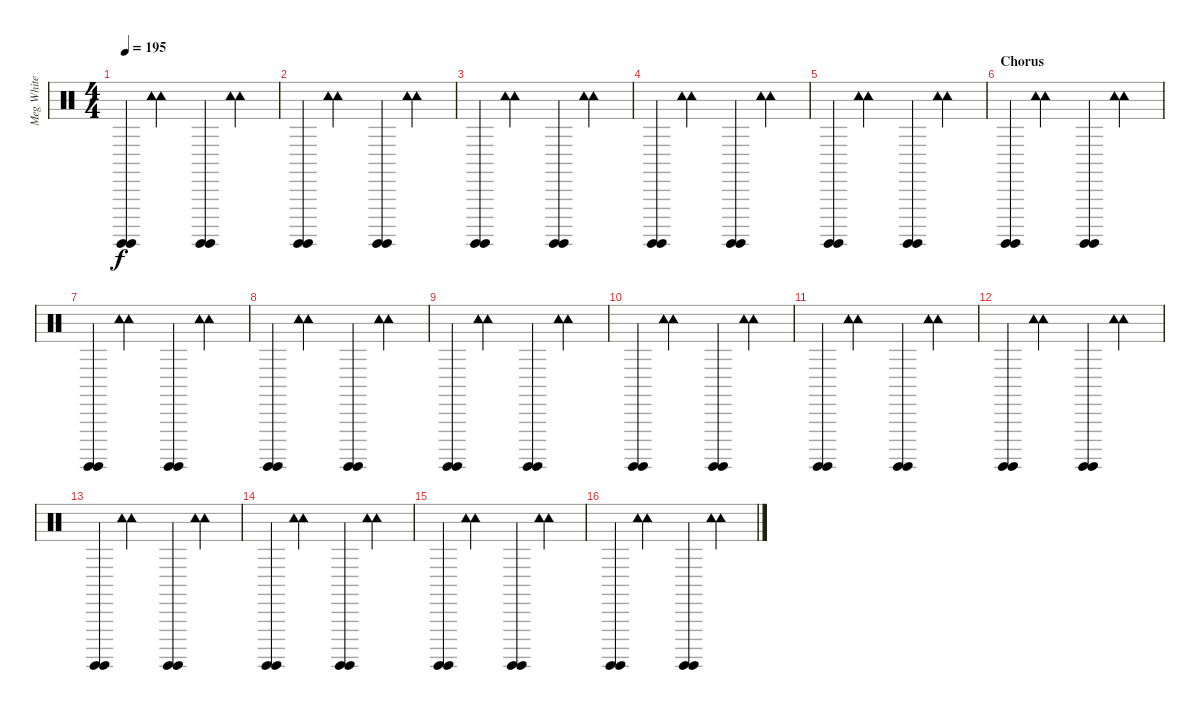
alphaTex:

\track ("Meg White" "Meg White") {instrument percussion}
\staff {score}
\articulation defaults
\ts (4 4)
\tempo 195
\clef neutral
\ks c
("Surdo (hit)" "Surdo (hit)").4{dy f} ("Tambourine (hit)" "Tambourine (hit)").4 ("Surdo (hit)" "Surdo (hit)").4 ("Tambourine (hit)" "Tambourine (hit)").4 |
("Surdo (hit)" "Surdo (hit)").4 ("Tambourine (hit)" "Tambourine (hit)").4 ("Surdo (hit)" "Surdo (hit)").4 ("Tambourine (hit)" "Tambourine (hit)").4 |
("Surdo (hit)" "Surdo (hit)").4 ("Tambourine (hit)" "Tambourine (hit)").4 ("Surdo (hit)" "Surdo (hit)").4 ("Tambourine (hit)" "Tambourine (hit)").4 |
("Surdo (hit)" "Surdo (hit)").4 ("Tambourine (hit)" "Tambourine (hit)").4 ("Surdo (hit)" "Surdo (hit)").4 ("Tambourine (hit)" "Tambourine (hit)").4 |
("Surdo (hit)" "Surdo (hit)").4 ("Tambourine (hit)" "Tambourine (hit)").4 ("Surdo (hit)" "Surdo (hit)").4 ("Tambourine (hit)" "Tambourine (hit)").4 |
\section ("" "Chorus")
("Surdo (hit)" "Surdo (hit)").4 ("Tambourine (hit)" "Tambourine (hit)").4 ("Surdo (hit)" "Surdo (hit)").4 ("Tambourine (hit)" "Tambourine (hit)").4 |
("Surdo (hit)" "Surdo (hit)").4 ("Tambourine (hit)" "Tambourine (hit)").4 ("Surdo (hit)" "Surdo (hit)").4 ("Tambourine (hit)" "Tambourine (hit)").4 |
("Surdo (hit)" "Surdo (hit)").4 ("Tambourine (hit)" "Tambourine (hit)").4 ("Surdo (hit)" "Surdo (hit)").4 ("Tambourine (hit)" "Tambourine (hit)").4 |
("Surdo (hit)" "Surdo (hit)").4 ("Tambourine (hit)" "Tambourine (hit)").4 ("Surdo (hit)" "Surdo (hit)").4 ("Tambourine (hit)" "Tambourine (hit)").4 |
("Surdo (hit)" "Surdo (hit)").4 ("Tambourine (hit)" "Tambourine (hit)").4 ("Surdo (hit)" "Surdo (hit)").4 ("Tambourine (hit)" "Tambourine (hit)").4 |
("Surdo (hit)" "Surdo (hit)").4 ("Tambourine (hit)" "Tambourine (hit)").4 ("Surdo (hit)" "Surdo (hit)").4 ("Tambourine (hit)" "Tambourine (hit)").4 |
("Surdo (hit)" "Surdo (hit)").4 ("Tambourine (hit)" "Tambourine (hit)").4 ("Surdo (hit)" "Surdo (hit)").4 ("Tambourine (hit)" "Tambourine (hit)").4 |
("Surdo (hit)" "Surdo (hit)").4 ("Tambourine (hit)" "Tambourine (hit)").4 ("Surdo (hit)" "Surdo (hit)").4 ("Tambourine (hit)" "Tambourine (hit)").4 |
("Surdo (hit)" "Surdo (hit)").4 ("Tambourine (hit)" "Tambourine (hit)").4 ("Surdo (hit)" "Surdo (hit)").4 ("Tambourine (hit)" "Tambourine (hit)").4 |
("Surdo (hit)" "Surdo (hit)").4 ("Tambourine (hit)" "Tambourine (hit)").4 ("Surdo (hit)" "Surdo (hit)").4 ("Tambourine (hit)" "Tambourine (hit)").4 |
("Surdo (hit)" "Surdo (hit)").4 ("Tambourine (hit)" "Tambourine (hit)").4 ("Surdo (hit)" "Surdo (hit)").4 ("Tambourine (hit)" "Tambourine (hit)").4
